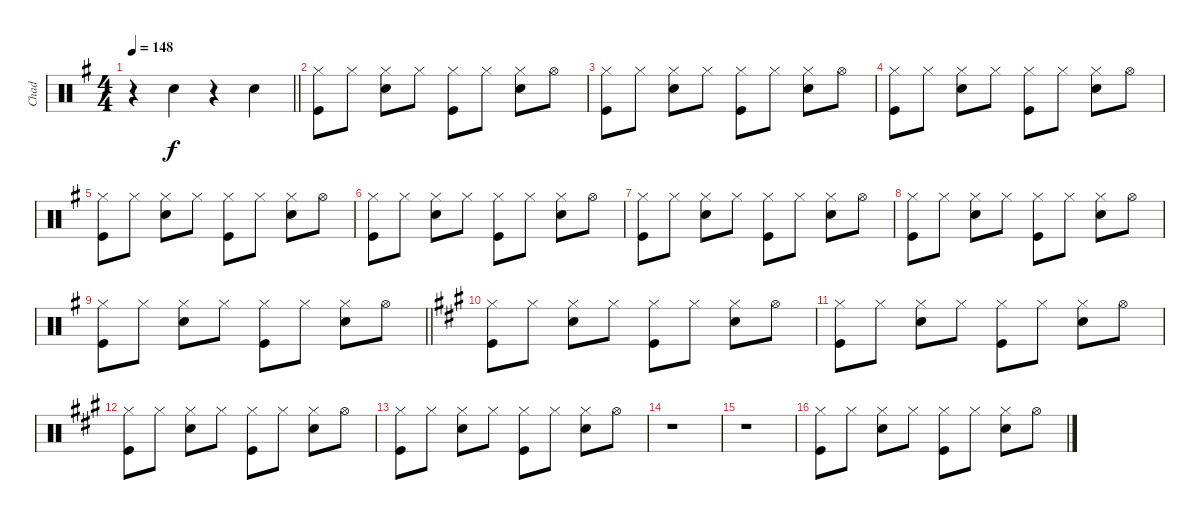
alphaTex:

\track ("Chad" "Chad") {instrument percussion}
\staff {score}
\articulation defaults
\ts (4 4)
\tempo 148
\clef neutral
\barLineRight lightlight
\ks g
r.4{dy f} "Hand Clap (hit)".4 r.4 "Hand Clap (hit)".4 |
("Hi-Hat (closed)" "Kick (hit)").8 "Hi-Hat (closed)".8 ("Hi-Hat (closed)" "Snare (hit) 2").8 "Hi-Hat (closed)".8 ("Hi-Hat (closed)" "Kick (hit)").8 "Hi-Hat (closed)".8 ("Hi-Hat (closed)" "Snare (hit) 2").8 "Hi-Hat (open)".8 |
("Hi-Hat (closed)" "Kick (hit)").8 "Hi-Hat (closed)".8 ("Hi-Hat (closed)" "Snare (hit) 2").8 "Hi-Hat (closed)".8 ("Hi-Hat (closed)" "Kick (hit)").8 "Hi-Hat (closed)".8 ("Hi-Hat (closed)" "Snare (hit) 2").8 "Hi-Hat (open)".8 |
("Hi-Hat (closed)" "Kick (hit)").8 "Hi-Hat (closed)".8 ("Hi-Hat (closed)" "Snare (hit) 2").8 "Hi-Hat (closed)".8 ("Hi-Hat (closed)" "Kick (hit)").8 "Hi-Hat (closed)".8 ("Hi-Hat (closed)" "Snare (hit) 2").8 "Hi-Hat (open)".8 |
("Hi-Hat (closed)" "Kick (hit)").8 "Hi-Hat (closed)".8 ("Hi-Hat (closed)" "Snare (hit) 2").8 "Hi-Hat (closed)".8 ("Hi-Hat (closed)" "Kick (hit)").8 "Hi-Hat (closed)".8 ("Hi-Hat (closed)" "Snare (hit) 2").8 "Hi-Hat (open)".8 |
("Hi-Hat (closed)" "Kick (hit)").8 "Hi-Hat (closed)".8 ("Hi-Hat (closed)" "Snare (hit) 2").8 "Hi-Hat (closed)".8 ("Hi-Hat (closed)" "Kick (hit)").8 "Hi-Hat (closed)".8 ("Hi-Hat (closed)" "Snare (hit) 2").8 "Hi-Hat (open)".8 |
("Hi-Hat (closed)" "Kick (hit)").8 "Hi-Hat (closed)".8 ("Hi-Hat (closed)" "Snare (hit) 2").8 "Hi-Hat (closed)".8 ("Hi-Hat (closed)" "Kick (hit)").8 "Hi-Hat (closed)".8 ("Hi-Hat (closed)" "Snare (hit) 2").8 "Hi-Hat (open)".8 |
("Hi-Hat (closed)" "Kick (hit)").8 "Hi-Hat (closed)".8 ("Hi-Hat (closed)" "Snare (hit) 2").8 "Hi-Hat (closed)".8 ("Hi-Hat (closed)" "Kick (hit)").8 "Hi-Hat (closed)".8 ("Hi-Hat (closed)" "Snare (hit) 2").8 "Hi-Hat (open)".8 |
\barLineRight lightlight
("Hi-Hat (closed)" "Kick (hit)").8 "Hi-Hat (closed)".8 ("Hi-Hat (closed)" "Snare (hit) 2").8 "Hi-Hat (closed)".8 ("Hi-Hat (closed)" "Kick (hit)").8 "Hi-Hat (closed)".8 ("Hi-Hat (closed)" "Snare (hit) 2").8 "Hi-Hat (open)".8 |
\ks a
("Hi-Hat (closed)" "Kick (hit)").8 "Hi-Hat (closed)".8 ("Hi-Hat (closed)" "Snare (hit) 2").8 "Hi-Hat (closed)".8 ("Hi-Hat (closed)" "Kick (hit)").8 "Hi-Hat (closed)".8 ("Hi-Hat (closed)" "Snare (hit) 2").8 "Hi-Hat (open)".8 |
("Hi-Hat (closed)" "Kick (hit)").8 "Hi-Hat (closed)".8 ("Hi-Hat (closed)" "Snare (hit) 2").8 "Hi-Hat (closed)".8 ("Hi-Hat (closed)" "Kick (hit)").8 "Hi-Hat (closed)".8 ("Hi-Hat (closed)" "Snare (hit) 2").8 "Hi-Hat (open)".8 |
("Hi-Hat (closed)" "Kick (hit)").8 "Hi-Hat (closed)".8 ("Hi-Hat (closed)" "Snare (hit) 2").8 "Hi-Hat (closed)".8 ("Hi-Hat (closed)" "Kick (hit)").8 "Hi-Hat (closed)".8 ("Hi-Hat (closed)" "Snare (hit) 2").8 "Hi-Hat (open)".8 |
("Hi-Hat (closed)" "Kick (hit)").8 "Hi-Hat (closed)".8 ("Hi-Hat (closed)" "Snare (hit) 2").8 "Hi-Hat (closed)".8 ("Hi-Hat (closed)" "Kick (hit)").8 "Hi-Hat (closed)".8 ("Hi-Hat (closed)" "Snare (hit) 2").8 "Hi-Hat (open)".8 |
r.1 |
r.1 |
("Hi-Hat (closed)" "Kick (hit)").8 "Hi-Hat (closed)".8 ("Hi-Hat (closed)" "Snare (hit) 2").8 "Hi-Hat (closed)".8 ("Hi-Hat (closed)" "Kick (hit)").8 "Hi-Hat (closed)".8 ("Hi-Hat (closed)" "Snare (hit) 2").8 "Hi-Hat (open)".8
